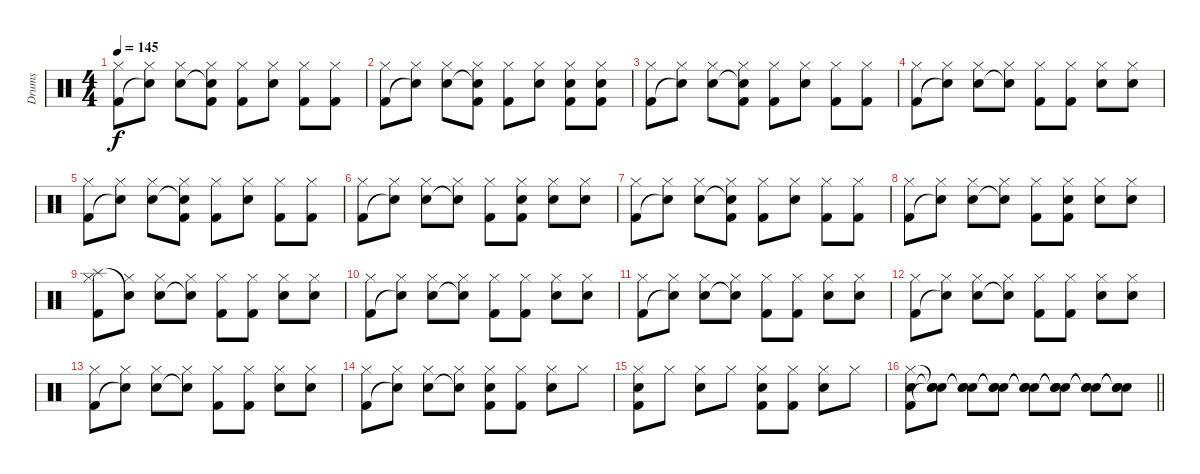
\track ("Drums" "Drums") {instrument percussion}
\staff {score}
\articulation defaults
\ts (4 4)
\tempo 145
\clef neutral
\ks c
("Hi-Hat (closed)" "Kick (hit) 2").8{dy f} ("Hi-Hat (closed)" "Snare (hit)"{t}).8 ("Hi-Hat (closed)" "Electric Snare (hit)").8 ("Hi-Hat (closed)" "Snare (hit)"{t} "Kick (hit) 2").8 ("Hi-Hat (closed)" "Kick (hit) 2").8 ("Hi-Hat (closed)" "Electric Snare (hit)").8 ("Hi-Hat (closed)" "Kick (hit) 2").8 ("Hi-Hat (closed)" "Kick (hit) 2").8 |
("Hi-Hat (closed)" "Kick (hit) 2").8 ("Hi-Hat (closed)" "Snare (hit)"{t}).8 ("Hi-Hat (closed)" "Electric Snare (hit)").8 ("Hi-Hat (closed)" "Snare (hit)"{t} "Kick (hit) 2").8 ("Hi-Hat (closed)" "Kick (hit) 2").8 ("Hi-Hat (closed)" "Electric Snare (hit)").8 ("Hi-Hat (closed)" "Electric Snare (hit)" "Kick (hit) 2").8 ("Hi-Hat (closed)" "Electric Snare (hit)" "Kick (hit) 2").8 |
("Hi-Hat (closed)" "Kick (hit) 2").8 ("Hi-Hat (closed)" "Snare (hit)"{t}).8 ("Hi-Hat (closed)" "Electric Snare (hit)").8 ("Hi-Hat (closed)" "Snare (hit)"{t} "Kick (hit) 2").8 ("Hi-Hat (closed)" "Kick (hit) 2").8 ("Hi-Hat (closed)" "Electric Snare (hit)").8 ("Hi-Hat (closed)" "Kick (hit) 2").8 ("Hi-Hat (closed)" "Kick (hit) 2").8 |
("Hi-Hat (closed)" "Kick (hit) 2").8 ("Hi-Hat (closed)" "Snare (hit)"{t}).8 ("Hi-Hat (closed)" "Electric Snare (hit)").8 ("Hi-Hat (closed)" "Snare (hit)"{t}).8 ("Hi-Hat (closed)" "Kick (hit) 2").8 ("Hi-Hat (closed)" "Kick (hit) 2").8 ("Hi-Hat (closed)" "Electric Snare (hit)").8 ("Hi-Hat (closed)" "Electric Snare (hit)").8 |
("Hi-Hat (closed)" "Kick (hit) 2").8 ("Hi-Hat (closed)" "Snare (hit)"{t}).8 ("Hi-Hat (closed)" "Electric Snare (hit)").8 ("Hi-Hat (closed)" "Snare (hit)"{t} "Kick (hit) 2").8 ("Hi-Hat (closed)" "Kick (hit) 2").8 ("Hi-Hat (closed)" "Electric Snare (hit)").8 ("Hi-Hat (closed)" "Kick (hit) 2").8 ("Hi-Hat (closed)" "Kick (hit) 2").8 |
("Hi-Hat (closed)" "Kick (hit) 2").8 ("Hi-Hat (closed)" "Snare (hit)"{t}).8 ("Hi-Hat (closed)" "Electric Snare (hit)").8 ("Hi-Hat (closed)" "Snare (hit)"{t}).8 ("Hi-Hat (closed)" "Kick (hit) 2").8 ("Hi-Hat (closed)" "Electric Snare (hit)" "Kick (hit) 2").8 ("Hi-Hat (closed)" "Electric Snare (hit)").8 ("Hi-Hat (closed)" "Electric Snare (hit)").8 |
("Hi-Hat (closed)" "Kick (hit) 2").8 ("Hi-Hat (closed)" "Snare (hit)"{t}).8 ("Hi-Hat (closed)" "Electric Snare (hit)").8 ("Hi-Hat (closed)" "Snare (hit)"{t} "Kick (hit) 2").8 ("Hi-Hat (closed)" "Kick (hit) 2").8 ("Hi-Hat (closed)" "Electric Snare (hit)").8 ("Hi-Hat (closed)" "Kick (hit) 2").8 ("Hi-Hat (closed)" "Kick (hit) 2").8 |
("Hi-Hat (closed)" "Kick (hit) 2").8 ("Hi-Hat (closed)" "Snare (hit)"{t}).8 ("Hi-Hat (closed)" "Electric Snare (hit)").8 ("Hi-Hat (closed)" "Snare (hit)"{t}).8 ("Hi-Hat (closed)" "Kick (hit) 2").8 ("Hi-Hat (closed)" "Electric Snare (hit)" "Kick (hit) 2").8 ("Hi-Hat (closed)" "Electric Snare (hit)").8 ("Hi-Hat (closed)" "Electric Snare (hit)").8 |
("Hi-Hat (closed)" "Splash (hit)" "Kick (hit) 2").8 ("Hi-Hat (closed)" "Snare (hit)"{t}).8 ("Hi-Hat (closed)" "Electric Snare (hit)").8 ("Hi-Hat (closed)" "Snare (hit)"{t}).8 ("Hi-Hat (closed)" "Kick (hit) 2").8 ("Hi-Hat (closed)" "Kick (hit) 2").8 ("Hi-Hat (closed)" "Electric Snare (hit)").8 ("Hi-Hat (closed)" "Electric Snare (hit)").8 |
("Hi-Hat (closed)" "Kick (hit) 2").8 ("Hi-Hat (closed)" "Snare (hit)"{t}).8 ("Hi-Hat (closed)" "Electric Snare (hit)").8 ("Hi-Hat (closed)" "Snare (hit)"{t}).8 ("Hi-Hat (closed)" "Kick (hit) 2").8 ("Hi-Hat (closed)" "Kick (hit) 2").8 ("Hi-Hat (closed)" "Electric Snare (hit)").8 ("Hi-Hat (closed)" "Electric Snare (hit)").8 |
("Hi-Hat (closed)" "Kick (hit) 2").8 ("Hi-Hat (closed)" "Snare (hit)"{t}).8 ("Hi-Hat (closed)" "Electric Snare (hit)").8 ("Hi-Hat (closed)" "Snare (hit)"{t}).8 ("Hi-Hat (closed)" "Kick (hit) 2").8 ("Hi-Hat (closed)" "Kick (hit) 2").8 ("Hi-Hat (closed)" "Electric Snare (hit)").8 ("Hi-Hat (closed)" "Electric Snare (hit)").8 |
("Hi-Hat (closed)" "Kick (hit) 2").8 ("Hi-Hat (closed)" "Snare (hit)"{t}).8 ("Hi-Hat (closed)" "Electric Snare (hit)").8 ("Hi-Hat (closed)" "Snare (hit)"{t}).8 ("Hi-Hat (closed)" "Kick (hit) 2").8 ("Hi-Hat (closed)" "Kick (hit) 2").8 ("Hi-Hat (closed)" "Electric Snare (hit)").8 ("Hi-Hat (closed)" "Electric Snare (hit)").8 |
("Hi-Hat (closed)" "Kick (hit) 2").8 ("Hi-Hat (closed)" "Snare (hit)"{t}).8 ("Hi-Hat (closed)" "Electric Snare (hit)").8 ("Hi-Hat (closed)" "Snare (hit)"{t}).8 ("Hi-Hat (closed)" "Kick (hit) 2").8 ("Hi-Hat (closed)" "Kick (hit) 2").8 ("Hi-Hat (closed)" "Electric Snare (hit)").8 ("Hi-Hat (closed)" "Electric Snare (hit)").8 |
("Hi-Hat (closed)" "Kick (hit) 2").8 ("Hi-Hat (closed)" "Snare (hit)"{t}).8 ("Hi-Hat (closed)" "Electric Snare (hit)").8 ("Hi-Hat (closed)" "Snare (hit)"{t}).8 ("Hi-Hat (closed)" "Electric Snare (hit)" "Kick (hit) 2").8 ("Hi-Hat (closed)" "Kick (hit) 2").8 ("Hi-Hat (closed)" "Electric Snare (hit)").8 "Hi-Hat (closed)".8 |
("Hi-Hat (closed)" "Electric Snare (hit)" "Kick (hit) 2").8 "Hi-Hat (closed)".8 ("Hi-Hat (closed)" "Electric Snare (hit)").8 "Hi-Hat (closed)".8 ("Hi-Hat (closed)" "Electric Snare (hit)" "Kick (hit) 2").8 ("Hi-Hat (closed)" "Kick (hit) 2").8 ("Hi-Hat (closed)" "Electric Snare (hit)").8 "Hi-Hat (closed)".8 |
\barLineRight lightlight
("Hi-Hat (closed)" "Electric Snare (hit)" "Kick (hit) 2").8 ("Snare (hit)"{t} "Snare (hit)"{t} "Snare (hit)"{t}).8 ("Snare (hit)"{t} "Snare (hit)"{t} "Snare (hit)"{t}).8 ("Snare (hit)"{t} "Snare (hit)"{t} "Snare (hit)"{t}).8 ("Snare (hit)"{t} "Snare (hit)"{t} "Snare (hit)"{t}).8 ("Snare (hit)"{t} "Snare (hit)"{t} "Snare (hit)"{t}).8 ("Snare (hit)"{t} "Snare (hit)"{t} "Snare (hit)"{t}).8 ("Snare (hit)"{t} "Snare (hit)"{t} "Snare (hit)"{t}).8
